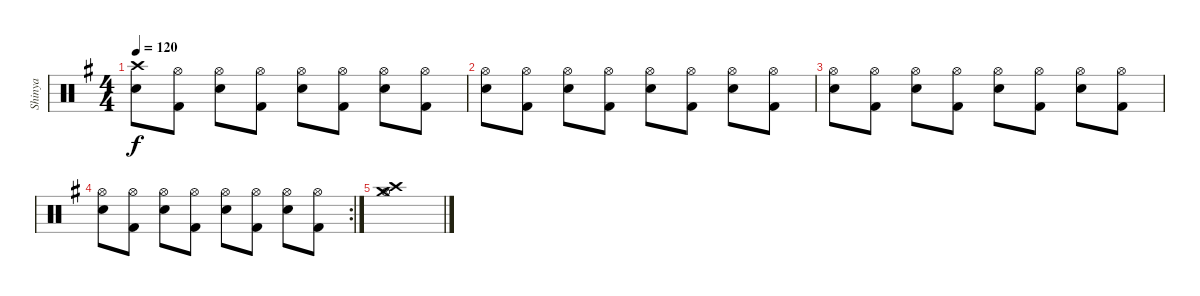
\track ("Shinya" "Shinya") {instrument percussion}
\staff {score}
\articulation defaults
\ts (4 4)
\tempo 120
\clef neutral
\ks g
("Crash high (hit)" "Snare (hit) 2").8{dy f} ("Hi-Hat (open)" "Kick (hit) 2").8 ("Hi-Hat (open)" "Snare (hit) 2").8 ("Hi-Hat (open)" "Kick (hit) 2").8 ("Hi-Hat (open)" "Snare (hit) 2").8 ("Hi-Hat (open)" "Kick (hit) 2").8 ("Hi-Hat (open)" "Snare (hit) 2").8 ("Hi-Hat (open)" "Kick (hit) 2").8 |
("Hi-Hat (open)" "Snare (hit) 2").8 ("Hi-Hat (open)" "Kick (hit) 2").8 ("Hi-Hat (open)" "Snare (hit) 2").8 ("Hi-Hat (open)" "Kick (hit) 2").8 ("Hi-Hat (open)" "Snare (hit) 2").8 ("Hi-Hat (open)" "Kick (hit) 2").8 ("Hi-Hat (open)" "Snare (hit) 2").8 ("Hi-Hat (open)" "Kick (hit) 2").8 |
("Hi-Hat (open)" "Snare (hit) 2").8 ("Hi-Hat (open)" "Kick (hit) 2").8 ("Hi-Hat (open)" "Snare (hit) 2").8 ("Hi-Hat (open)" "Kick (hit) 2").8 ("Hi-Hat (open)" "Snare (hit) 2").8 ("Hi-Hat (open)" "Kick (hit) 2").8 ("Hi-Hat (open)" "Snare (hit) 2").8 ("Hi-Hat (open)" "Kick (hit) 2").8 |
\rc 2
("Hi-Hat (open)" "Snare (hit) 2").8 ("Hi-Hat (open)" "Kick (hit) 2").8 ("Hi-Hat (open)" "Snare (hit) 2").8 ("Hi-Hat (open)" "Kick (hit) 2").8 ("Hi-Hat (open)" "Snare (hit) 2").8 ("Hi-Hat (open)" "Kick (hit) 2").8 ("Hi-Hat (open)" "Snare (hit) 2").8 ("Hi-Hat (open)" "Kick (hit) 2").8 |
("Crash high (hit)" "Crash medium (hit)" "Hi-Hat (open)").1
